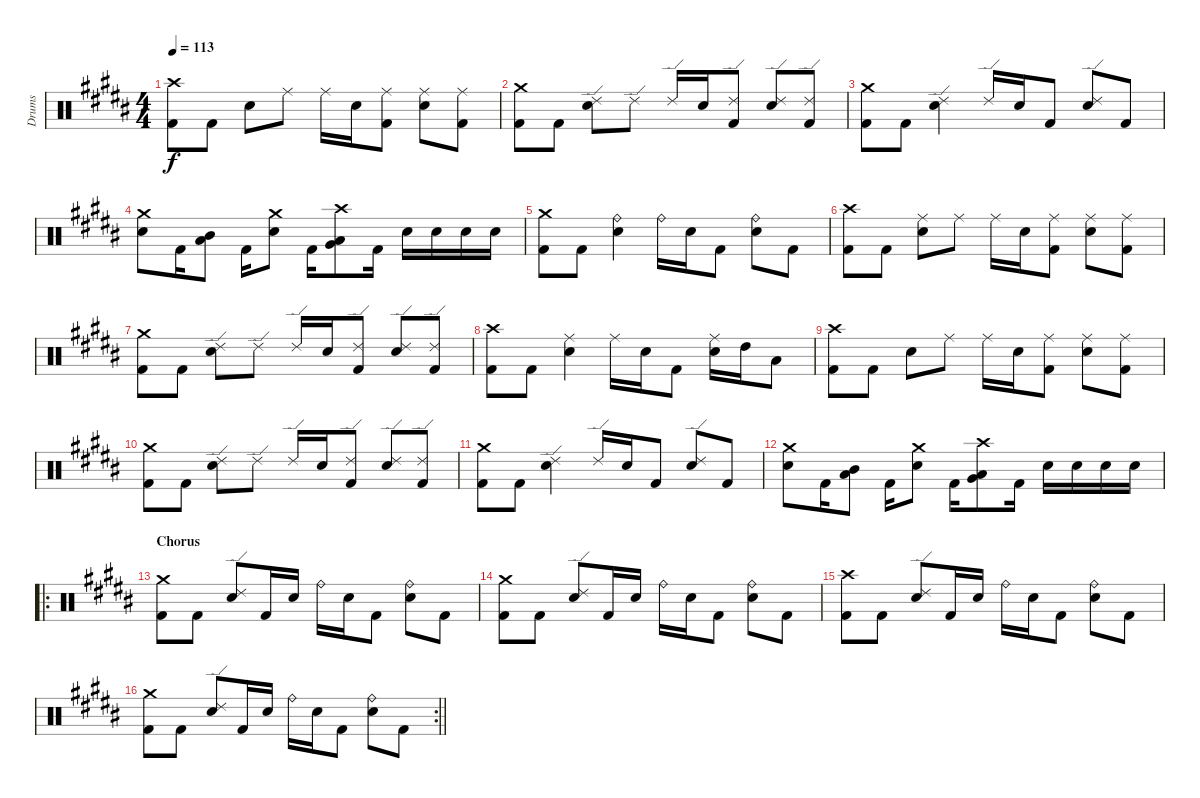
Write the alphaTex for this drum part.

\track ("Drums" "Drums") {instrument percussion}
\staff {score}
\articulation defaults
\ts (4 4)
\tempo 113
\clef neutral
\ks b
("Kick (hit) 2" "Crash high (hit)").8{dy f} "Kick (hit) 2".8 "Electric Snare (hit)".8 "Ride (middle)".8 "Ride (middle)".16 "Electric Snare (hit)".16 ("Kick (hit) 2" "Ride (middle)").8 ("Electric Snare (hit)" "Ride (middle)").8 ("Kick (hit) 2" "Ride (middle)").8 |
("Kick (hit) 2" "Crash medium (hit)").8 "Kick (hit) 2".8 ("Electric Snare (hit)" "Ride (edge) 2").8 "Ride (edge) 2".8 "Ride (edge) 2".16 "Electric Snare (hit)".16 ("Kick (hit) 2" "Ride (edge) 2").8 ("Electric Snare (hit)" "Ride (edge) 2").8 ("Kick (hit) 2" "Ride (edge) 2").8 |
("Kick (hit) 2" "Crash medium (hit)").8 "Kick (hit) 2".8 ("Electric Snare (hit)" "Ride (edge) 2").4 "Ride (edge) 2".16 "Electric Snare (hit)".16 "Kick (hit) 2".8 ("Electric Snare (hit)" "Ride (edge) 2").8 "Kick (hit) 2".8 |
("Electric Snare (hit)" "Crash medium (hit)").8 "Kick (hit) 2".16 ("Low Tom (hit)" "Mid Tom (hit)").8 "Kick (hit) 2".16 ("Electric Snare (hit)" "Crash medium (hit)").8 "Kick (hit) 2".16 ("Low Tom (hit)" "Very Low Tom (hit)" "Crash high (hit)").8 "Kick (hit) 2".16 "Electric Snare (hit)".16 "Electric Snare (hit)".16 "Electric Snare (hit)".16 "Electric Snare (hit)".16 |
("Kick (hit) 2" "Crash medium (hit)").8 "Kick (hit) 2".8 ("Electric Snare (hit)" "Ride (bell)").4 "Ride (bell)".16 "Electric Snare (hit)".16 "Kick (hit) 2".8 ("Electric Snare (hit)" "Ride (bell)").8 "Kick (hit) 2".8 |
("Kick (hit) 2" "Crash high (hit)").8 "Kick (hit) 2".8 ("Electric Snare (hit)" "Ride (middle)").8 "Ride (middle)".8 "Ride (middle)".16 "Electric Snare (hit)".16 ("Kick (hit) 2" "Ride (middle)").8 ("Electric Snare (hit)" "Ride (middle)").8 ("Kick (hit) 2" "Ride (middle)").8 |
("Kick (hit) 2" "Crash medium (hit)").8 "Kick (hit) 2".8 ("Electric Snare (hit)" "Ride (edge) 2").8 "Ride (edge) 2".8 "Ride (edge) 2".16 "Electric Snare (hit)".16 ("Kick (hit) 2" "Ride (edge) 2").8 ("Electric Snare (hit)" "Ride (edge) 2").8 ("Kick (hit) 2" "Ride (edge) 2").8 |
("Kick (hit) 2" "Crash high (hit)").8 "Kick (hit) 2".8 ("Electric Snare (hit)" "Ride (middle)").4 "Ride (middle)".16 "Electric Snare (hit)".16 "Kick (hit) 2".8 ("Electric Snare (hit)" "Ride (middle)").16 "High Tom (hit)".16 "Low Tom (hit)".8 |
("Kick (hit) 2" "Crash high (hit)").8 "Kick (hit) 2".8 "Electric Snare (hit)".8 "Ride (middle)".8 "Ride (middle)".16 "Electric Snare (hit)".16 ("Kick (hit) 2" "Ride (middle)").8 ("Electric Snare (hit)" "Ride (middle)").8 ("Kick (hit) 2" "Ride (middle)").8 |
("Kick (hit) 2" "Crash medium (hit)").8 "Kick (hit) 2".8 ("Electric Snare (hit)" "Ride (edge) 2").8 "Ride (edge) 2".8 "Ride (edge) 2".16 "Electric Snare (hit)".16 ("Kick (hit) 2" "Ride (edge) 2").8 ("Electric Snare (hit)" "Ride (edge) 2").8 ("Kick (hit) 2" "Ride (edge) 2").8 |
("Kick (hit) 2" "Crash medium (hit)").8 "Kick (hit) 2".8 ("Electric Snare (hit)" "Ride (edge) 2").4 "Ride (edge) 2".16 "Electric Snare (hit)".16 "Kick (hit) 2".8 ("Electric Snare (hit)" "Ride (edge) 2").8 "Kick (hit) 2".8 |
("Electric Snare (hit)" "Crash medium (hit)").8 "Kick (hit) 2".16 ("Low Tom (hit)" "Mid Tom (hit)").8 "Kick (hit) 2".16 ("Electric Snare (hit)" "Crash medium (hit)").8 "Kick (hit) 2".16 ("Low Tom (hit)" "Very Low Tom (hit)" "Crash high (hit)").8 "Kick (hit) 2".16 "Electric Snare (hit)".16 "Electric Snare (hit)".16 "Electric Snare (hit)".16 "Electric Snare (hit)".16 |
\ro
\section ("" "Chorus")
("Kick (hit) 2" "Crash medium (hit)").8 "Kick (hit) 2".8 ("Electric Snare (hit)" "Ride (edge) 2").8 "Kick (hit) 2".16 "Electric Snare (hit)".16 "Ride (bell)".16 "Electric Snare (hit)".16 "Kick (hit) 2".8 ("Electric Snare (hit)" "Ride (bell)").8 "Kick (hit) 2".8 |
("Kick (hit) 2" "Crash medium (hit)").8 "Kick (hit) 2".8 ("Electric Snare (hit)" "Ride (edge) 2").8 "Kick (hit) 2".16 "Electric Snare (hit)".16 "Ride (bell)".16 "Electric Snare (hit)".16 "Kick (hit) 2".8 ("Electric Snare (hit)" "Ride (bell)").8 "Kick (hit) 2".8 |
("Kick (hit) 2" "Crash high (hit)").8 "Kick (hit) 2".8 ("Electric Snare (hit)" "Ride (edge) 2").8 "Kick (hit) 2".16 "Electric Snare (hit)".16 "Ride (bell)".16 "Electric Snare (hit)".16 "Kick (hit) 2".8 ("Electric Snare (hit)" "Ride (bell)").8 "Kick (hit) 2".8 |
\rc 2
\barLineRight lightlight
("Kick (hit) 2" "Crash medium (hit)").8 "Kick (hit) 2".8 ("Electric Snare (hit)" "Ride (edge) 2").8 "Kick (hit) 2".16 "Electric Snare (hit)".16 "Ride (bell)".16 "Electric Snare (hit)".16 "Kick (hit) 2".8 ("Electric Snare (hit)" "Ride (bell)").8 "Kick (hit) 2".8
